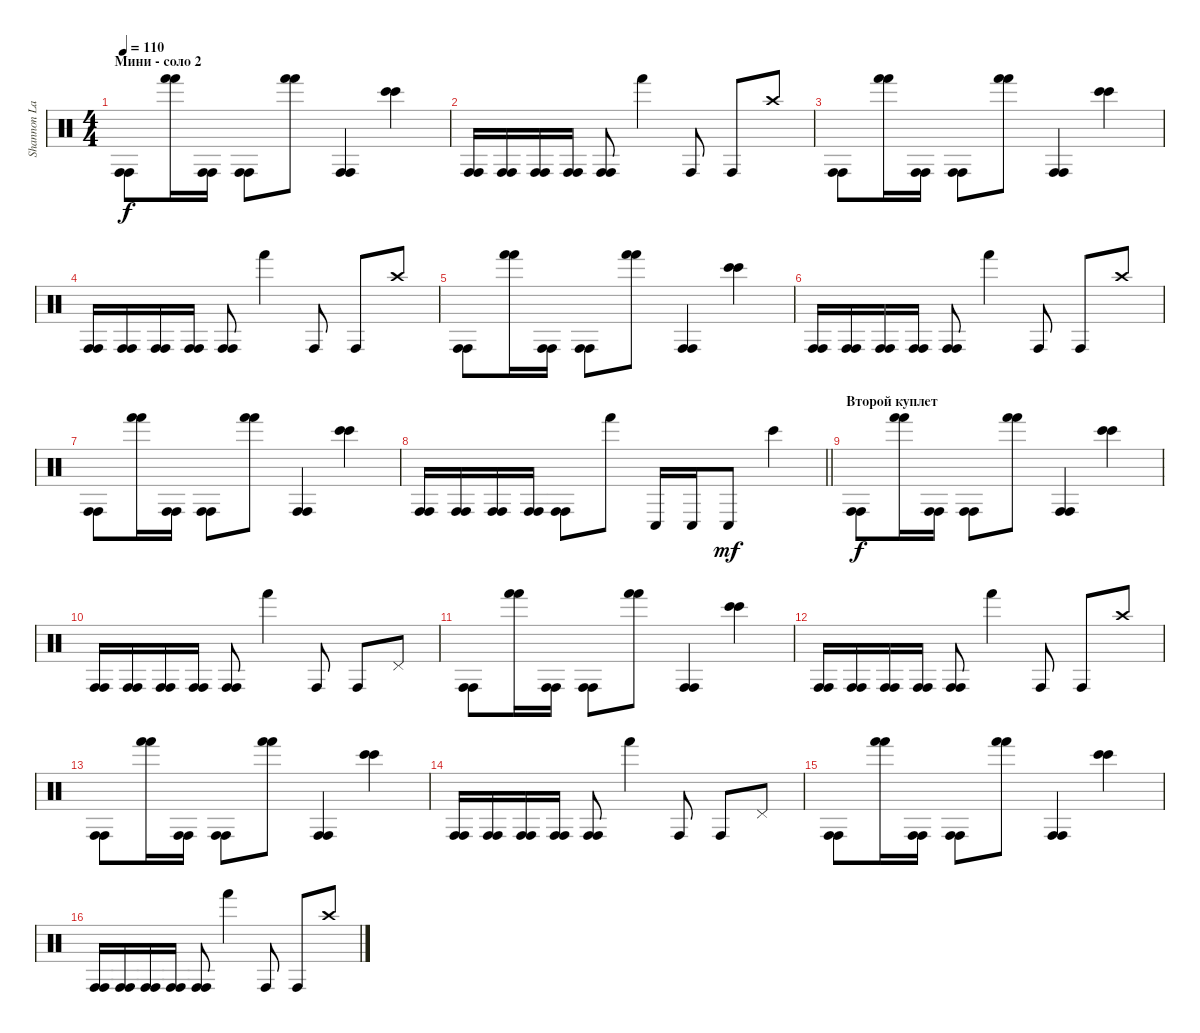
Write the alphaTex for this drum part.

\track ("Shannon Larkin [Percussion 1]" "Shannon La") {instrument percussion}
\staff {score}
\articulation defaults
\ts (4 4)
\section ("" "Мини - соло 2")
\tempo 110
\clef neutral
\ks c
("Conga high (hit)" "Conga high (hit)").8{dy f} ("Hand (hit)" "Hand (hit)").16 ("Conga high (hit)" "Conga high (hit)").16 ("Conga high (hit)" "Conga high (hit)").8 ("Hand (hit)" "Hand (hit)").8 ("Conga high (hit)" "Conga high (hit)").4 ("Bongo High (hit)" "Bongo High (hit)").4 |
("Conga high (hit)" "Conga high (hit)").16 ("Conga high (hit)" "Conga high (hit)").16 ("Conga high (hit)" "Conga high (hit)").16 ("Conga high (hit)" "Conga high (hit)").16 ("Conga high (hit)" "Conga high (hit)").8 "Hand (hit)".4 "Conga high (hit)".8 "Conga high (hit)".8 "Crash high (hit)".8 |
("Conga high (hit)" "Conga high (hit)").8 ("Hand (hit)" "Hand (hit)").16 ("Conga high (hit)" "Conga high (hit)").16 ("Conga high (hit)" "Conga high (hit)").8 ("Hand (hit)" "Hand (hit)").8 ("Conga high (hit)" "Conga high (hit)").4 ("Bongo High (hit)" "Bongo High (hit)").4 |
("Conga high (hit)" "Conga high (hit)").16 ("Conga high (hit)" "Conga high (hit)").16 ("Conga high (hit)" "Conga high (hit)").16 ("Conga high (hit)" "Conga high (hit)").16 ("Conga high (hit)" "Conga high (hit)").8 "Hand (hit)".4 "Conga high (hit)".8 "Conga high (hit)".8 "Crash high (hit)".8 |
("Conga high (hit)" "Conga high (hit)").8 ("Hand (hit)" "Hand (hit)").16 ("Conga high (hit)" "Conga high (hit)").16 ("Conga high (hit)" "Conga high (hit)").8 ("Hand (hit)" "Hand (hit)").8 ("Conga high (hit)" "Conga high (hit)").4 ("Bongo High (hit)" "Bongo High (hit)").4 |
("Conga high (hit)" "Conga high (hit)").16 ("Conga high (hit)" "Conga high (hit)").16 ("Conga high (hit)" "Conga high (hit)").16 ("Conga high (hit)" "Conga high (hit)").16 ("Conga high (hit)" "Conga high (hit)").8 "Hand (hit)".4 "Conga high (hit)".8 "Conga high (hit)".8 "Crash high (hit)".8 |
("Conga high (hit)" "Conga high (hit)").8 ("Hand (hit)" "Hand (hit)").16 ("Conga high (hit)" "Conga high (hit)").16 ("Conga high (hit)" "Conga high (hit)").8 ("Hand (hit)" "Hand (hit)").8 ("Conga high (hit)" "Conga high (hit)").4 ("Bongo High (hit)" "Bongo High (hit)").4 |
\barLineRight lightlight
("Conga high (hit)" "Conga high (hit)").16 ("Conga high (hit)" "Conga high (hit)").16 ("Conga high (hit)" "Conga high (hit)").16 ("Conga high (hit)" "Conga high (hit)").16 ("Conga high (hit)" "Conga high (hit)").8 "Hand (hit)".8 "Conga low (hit)".16 "Conga low (hit)".16 "Conga low (hit)".8{dy mf} "Bongo High (hit)".4 |
\section ("" "Второй куплет")
("Conga high (hit)" "Conga high (hit)").8{dy f} ("Hand (hit)" "Hand (hit)").16 ("Conga high (hit)" "Conga high (hit)").16 ("Conga high (hit)" "Conga high (hit)").8 ("Hand (hit)" "Hand (hit)").8 ("Conga high (hit)" "Conga high (hit)").4 ("Bongo High (hit)" "Bongo High (hit)").4 |
("Conga high (hit)" "Conga high (hit)").16 ("Conga high (hit)" "Conga high (hit)").16 ("Conga high (hit)" "Conga high (hit)").16 ("Conga high (hit)" "Conga high (hit)").16 ("Conga high (hit)" "Conga high (hit)").8 "Hand (hit)".4 "Conga high (hit)".8 "Conga high (hit)".8 "Pedal Hi-Hat (hit)".8 |
("Conga high (hit)" "Conga high (hit)").8 ("Hand (hit)" "Hand (hit)").16 ("Conga high (hit)" "Conga high (hit)").16 ("Conga high (hit)" "Conga high (hit)").8 ("Hand (hit)" "Hand (hit)").8 ("Conga high (hit)" "Conga high (hit)").4 ("Bongo High (hit)" "Bongo High (hit)").4 |
("Conga high (hit)" "Conga high (hit)").16 ("Conga high (hit)" "Conga high (hit)").16 ("Conga high (hit)" "Conga high (hit)").16 ("Conga high (hit)" "Conga high (hit)").16 ("Conga high (hit)" "Conga high (hit)").8 "Hand (hit)".4 "Conga high (hit)".8 "Conga high (hit)".8 "Crash high (hit)".8 |
("Conga high (hit)" "Conga high (hit)").8 ("Hand (hit)" "Hand (hit)").16 ("Conga high (hit)" "Conga high (hit)").16 ("Conga high (hit)" "Conga high (hit)").8 ("Hand (hit)" "Hand (hit)").8 ("Conga high (hit)" "Conga high (hit)").4 ("Bongo High (hit)" "Bongo High (hit)").4 |
("Conga high (hit)" "Conga high (hit)").16 ("Conga high (hit)" "Conga high (hit)").16 ("Conga high (hit)" "Conga high (hit)").16 ("Conga high (hit)" "Conga high (hit)").16 ("Conga high (hit)" "Conga high (hit)").8 "Hand (hit)".4 "Conga high (hit)".8 "Conga high (hit)".8 "Pedal Hi-Hat (hit)".8 |
("Conga high (hit)" "Conga high (hit)").8 ("Hand (hit)" "Hand (hit)").16 ("Conga high (hit)" "Conga high (hit)").16 ("Conga high (hit)" "Conga high (hit)").8 ("Hand (hit)" "Hand (hit)").8 ("Conga high (hit)" "Conga high (hit)").4 ("Bongo High (hit)" "Bongo High (hit)").4 |
("Conga high (hit)" "Conga high (hit)").16 ("Conga high (hit)" "Conga high (hit)").16 ("Conga high (hit)" "Conga high (hit)").16 ("Conga high (hit)" "Conga high (hit)").16 ("Conga high (hit)" "Conga high (hit)").8 "Hand (hit)".4 "Conga high (hit)".8 "Conga high (hit)".8 "Crash high (hit)".8
